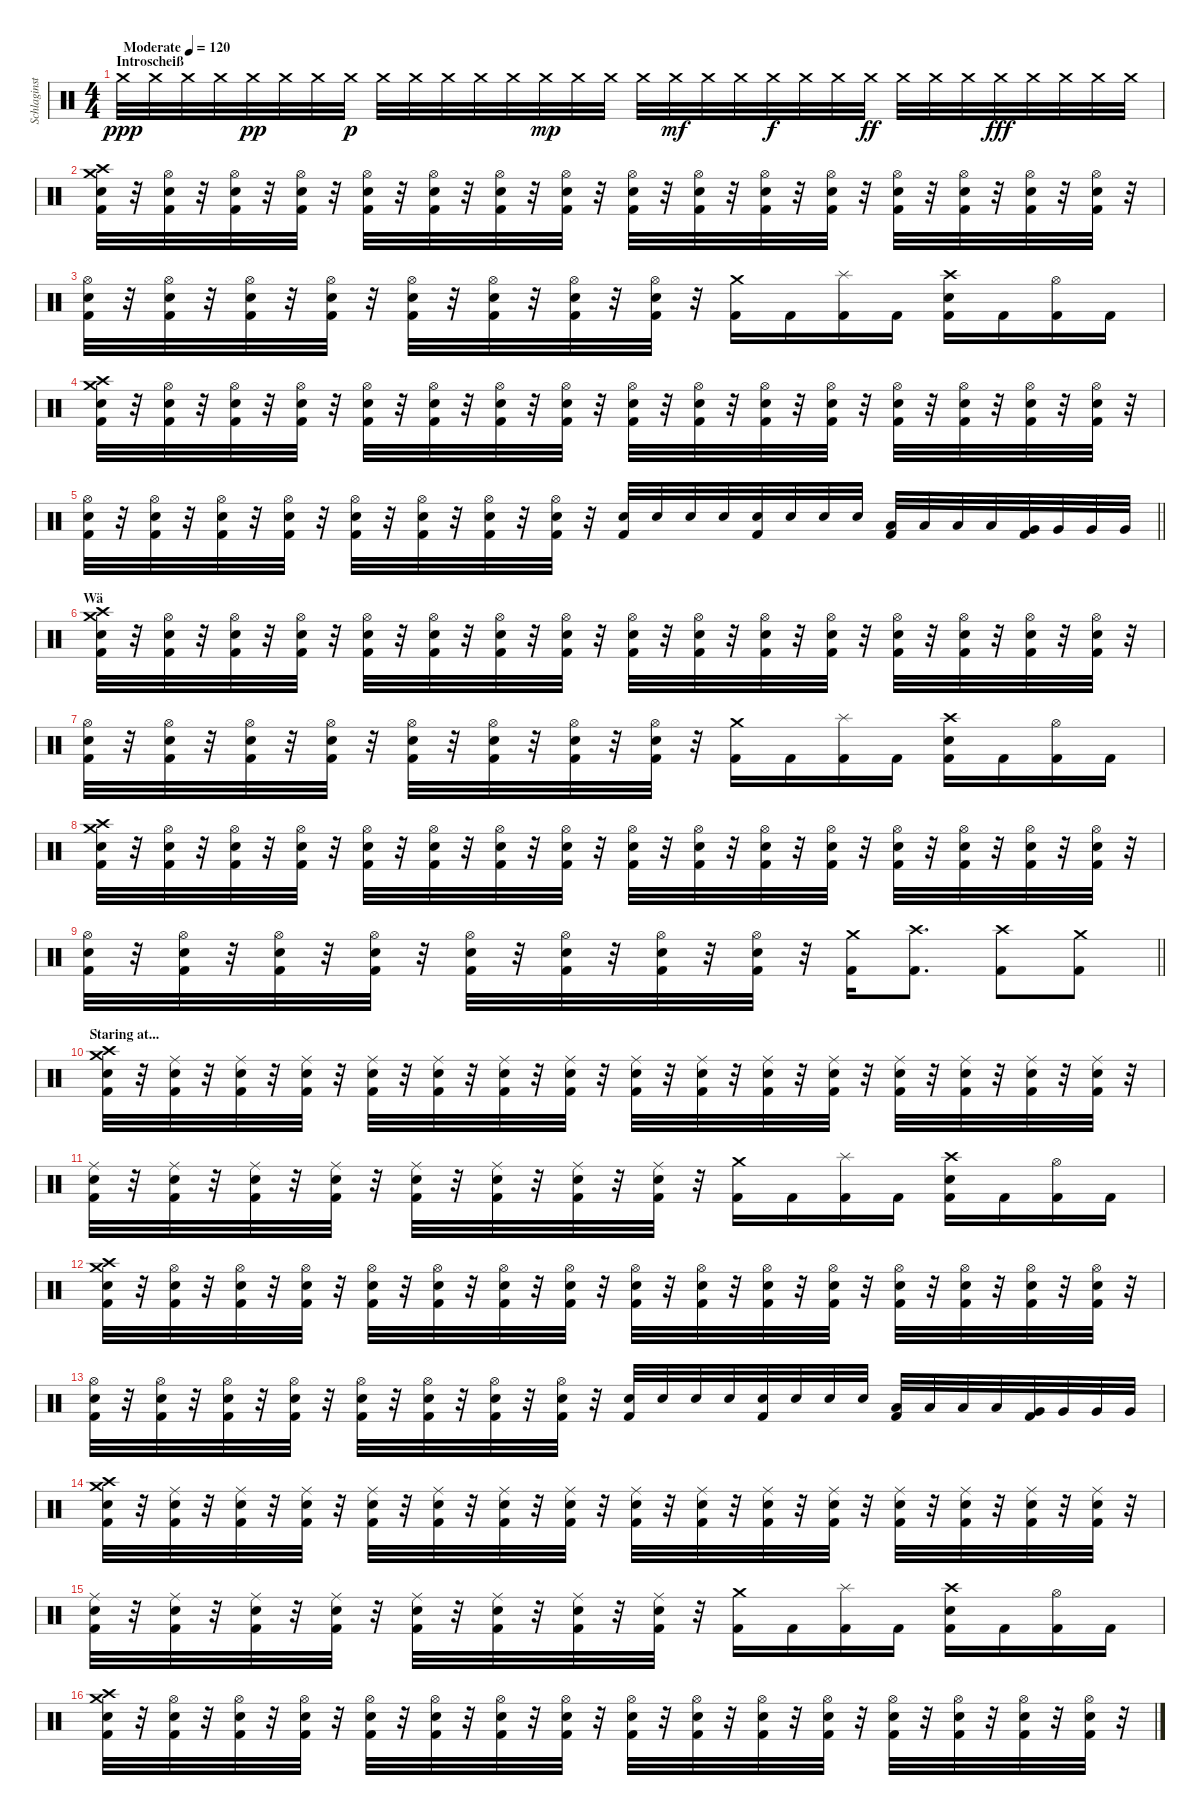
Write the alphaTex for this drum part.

\track ("Schlaginstrumente - Auswahl" "Schlaginst") {instrument percussion}
\staff {score}
\articulation defaults
\ts (4 4)
\section ("" "Introscheiß")
\tempo (120 "Moderate")
\clef neutral
\ks c "Crash medium (hit)".32{dy ppp} "Crash medium (hit)".32 "Crash medium (hit)".32 "Crash medium (hit)".32 "Crash medium (hit)".32{dy pp} "Crash medium (hit)".32 "Crash medium (hit)".32 "Crash medium (hit)".32{dy p} "Crash medium (hit)".32 "Crash medium (hit)".32 "Crash medium (hit)".32 "Crash medium (hit)".32 "Crash medium (hit)".32 "Crash medium (hit)".32{dy mp} "Crash medium (hit)".32 "Crash medium (hit)".32 "Crash medium (hit)".32 "Crash medium (hit)".32{dy mf} "Crash medium (hit)".32 "Crash medium (hit)".32 "Crash medium (hit)".32{dy f} "Crash medium (hit)".32 "Crash medium (hit)".32 "Crash medium (hit)".32{dy ff} "Crash medium (hit)".32 "Crash medium (hit)".32 "Crash medium (hit)".32 "Crash medium (hit)".32{dy fff} "Crash medium (hit)".32 "Crash medium (hit)".32 "Crash medium (hit)".32 "Crash medium (hit)".32
|
("Crash medium (hit)" "Crash high (hit)" "Electric Snare (hit)" "Kick (hit) 2").32 r.32 ("Hi-Hat (open)" "Electric Snare (hit)" "Kick (hit) 2").32 r.32 ("Hi-Hat (open)" "Electric Snare (hit)" "Kick (hit) 2").32 r.32 ("Hi-Hat (open)" "Electric Snare (hit)" "Kick (hit) 2").32 r.32 ("Hi-Hat (open)" "Electric Snare (hit)" "Kick (hit) 2").32 r.32 ("Hi-Hat (open)" "Electric Snare (hit)" "Kick (hit) 2").32 r.32 ("Hi-Hat (open)" "Electric Snare (hit)" "Kick (hit) 2").32 r.32 ("Hi-Hat (open)" "Electric Snare (hit)" "Kick (hit) 2").32 r.32 ("Hi-Hat (open)" "Electric Snare (hit)" "Kick (hit) 2").32 r.32 ("Hi-Hat (open)" "Electric Snare (hit)" "Kick (hit) 2").32 r.32 ("Hi-Hat (open)" "Electric Snare (hit)" "Kick (hit) 2").32 r.32 ("Hi-Hat (open)" "Electric Snare (hit)" "Kick (hit) 2").32 r.32 ("Hi-Hat (open)" "Electric Snare (hit)" "Kick (hit) 2").32 r.32 ("Hi-Hat (open)" "Electric Snare (hit)" "Kick (hit) 2").32 r.32 ("Hi-Hat (open)" "Electric Snare (hit)" "Kick (hit) 2").32 r.32 ("Hi-Hat (open)" "Electric Snare (hit)" "Kick (hit) 2").32 r.32 |
("Hi-Hat (open)" "Electric Snare (hit)" "Kick (hit) 2").32 r.32 ("Hi-Hat (open)" "Electric Snare (hit)" "Kick (hit) 2").32 r.32 ("Hi-Hat (open)" "Electric Snare (hit)" "Kick (hit) 2").32 r.32 ("Hi-Hat (open)" "Electric Snare (hit)" "Kick (hit) 2").32 r.32 ("Hi-Hat (open)" "Electric Snare (hit)" "Kick (hit) 2").32 r.32 ("Hi-Hat (open)" "Electric Snare (hit)" "Kick (hit) 2").32 r.32 ("Hi-Hat (open)" "Electric Snare (hit)" "Kick (hit) 2").32 r.32 ("Hi-Hat (open)" "Electric Snare (hit)" "Kick (hit) 2").32 r.32 ("Crash medium (hit)" "Kick (hit) 2").16 "Kick (hit) 2".16 ("Splash (hit)" "Kick (hit) 2").16 "Kick (hit) 2".16 ("Crash high (hit)" "Electric Snare (hit)" "Kick (hit) 2").16 "Kick (hit) 2".16 ("Hi-Hat (open)" "Kick (hit) 2").16 "Kick (hit) 2".16 |
("Crash medium (hit)" "Crash high (hit)" "Electric Snare (hit)" "Kick (hit) 2").32 r.32 ("Hi-Hat (open)" "Electric Snare (hit)" "Kick (hit) 2").32 r.32 ("Hi-Hat (open)" "Electric Snare (hit)" "Kick (hit) 2").32 r.32 ("Hi-Hat (open)" "Electric Snare (hit)" "Kick (hit) 2").32 r.32 ("Hi-Hat (open)" "Electric Snare (hit)" "Kick (hit) 2").32 r.32 ("Hi-Hat (open)" "Electric Snare (hit)" "Kick (hit) 2").32 r.32 ("Hi-Hat (open)" "Electric Snare (hit)" "Kick (hit) 2").32 r.32 ("Hi-Hat (open)" "Electric Snare (hit)" "Kick (hit) 2").32 r.32 ("Hi-Hat (open)" "Electric Snare (hit)" "Kick (hit) 2").32 r.32 ("Hi-Hat (open)" "Electric Snare (hit)" "Kick (hit) 2").32 r.32 ("Hi-Hat (open)" "Electric Snare (hit)" "Kick (hit) 2").32 r.32 ("Hi-Hat (open)" "Electric Snare (hit)" "Kick (hit) 2").32 r.32 ("Hi-Hat (open)" "Electric Snare (hit)" "Kick (hit) 2").32 r.32 ("Hi-Hat (open)" "Electric Snare (hit)" "Kick (hit) 2").32 r.32 ("Hi-Hat (open)" "Electric Snare (hit)" "Kick (hit) 2").32 r.32 ("Hi-Hat (open)" "Electric Snare (hit)" "Kick (hit) 2").32 r.32 |
\barLineRight lightlight
("Hi-Hat (open)" "Electric Snare (hit)" "Kick (hit) 2").32 r.32 ("Hi-Hat (open)" "Electric Snare (hit)" "Kick (hit) 2").32 r.32 ("Hi-Hat (open)" "Electric Snare (hit)" "Kick (hit) 2").32 r.32 ("Hi-Hat (open)" "Electric Snare (hit)" "Kick (hit) 2").32 r.32 ("Hi-Hat (open)" "Electric Snare (hit)" "Kick (hit) 2").32 r.32 ("Hi-Hat (open)" "Electric Snare (hit)" "Kick (hit) 2").32 r.32 ("Hi-Hat (open)" "Electric Snare (hit)" "Kick (hit) 2").32 r.32 ("Hi-Hat (open)" "Electric Snare (hit)" "Kick (hit) 2").32 r.32 ("Electric Snare (hit)" "Kick (hit) 2").32 "Electric Snare (hit)".32 "Electric Snare (hit)".32 "Electric Snare (hit)".32 ("Electric Snare (hit)" "Kick (hit) 2").32 "Electric Snare (hit)".32 "Electric Snare (hit)".32 "Electric Snare (hit)".32 ("Low Tom (hit)" "Kick (hit) 2").32 "Low Tom (hit)".32 "Low Tom (hit)".32 "Low Tom (hit)".32 ("Very Low Tom (hit)" "Kick (hit) 2").32 "Very Low Tom (hit)".32 "Very Low Tom (hit)".32 "Very Low Tom (hit)".32 |
\section ("" "Wä ")
("Crash medium (hit)" "Crash high (hit)" "Electric Snare (hit)" "Kick (hit) 2").32 r.32 ("Hi-Hat (open)" "Electric Snare (hit)" "Kick (hit) 2").32 r.32 ("Hi-Hat (open)" "Electric Snare (hit)" "Kick (hit) 2").32 r.32 ("Hi-Hat (open)" "Electric Snare (hit)" "Kick (hit) 2").32 r.32 ("Hi-Hat (open)" "Electric Snare (hit)" "Kick (hit) 2").32 r.32 ("Hi-Hat (open)" "Electric Snare (hit)" "Kick (hit) 2").32 r.32 ("Hi-Hat (open)" "Electric Snare (hit)" "Kick (hit) 2").32 r.32 ("Hi-Hat (open)" "Electric Snare (hit)" "Kick (hit) 2").32 r.32 ("Hi-Hat (open)" "Electric Snare (hit)" "Kick (hit) 2").32 r.32 ("Hi-Hat (open)" "Electric Snare (hit)" "Kick (hit) 2").32 r.32 ("Hi-Hat (open)" "Electric Snare (hit)" "Kick (hit) 2").32 r.32 ("Hi-Hat (open)" "Electric Snare (hit)" "Kick (hit) 2").32 r.32 ("Hi-Hat (open)" "Electric Snare (hit)" "Kick (hit) 2").32 r.32 ("Hi-Hat (open)" "Electric Snare (hit)" "Kick (hit) 2").32 r.32 ("Hi-Hat (open)" "Electric Snare (hit)" "Kick (hit) 2").32 r.32 ("Hi-Hat (open)" "Electric Snare (hit)" "Kick (hit) 2").32 r.32 |
("Hi-Hat (open)" "Electric Snare (hit)" "Kick (hit) 2").32 r.32 ("Hi-Hat (open)" "Electric Snare (hit)" "Kick (hit) 2").32 r.32 ("Hi-Hat (open)" "Electric Snare (hit)" "Kick (hit) 2").32 r.32 ("Hi-Hat (open)" "Electric Snare (hit)" "Kick (hit) 2").32 r.32 ("Hi-Hat (open)" "Electric Snare (hit)" "Kick (hit) 2").32 r.32 ("Hi-Hat (open)" "Electric Snare (hit)" "Kick (hit) 2").32 r.32 ("Hi-Hat (open)" "Electric Snare (hit)" "Kick (hit) 2").32 r.32 ("Hi-Hat (open)" "Electric Snare (hit)" "Kick (hit) 2").32 r.32 ("Crash medium (hit)" "Kick (hit) 2").16 "Kick (hit) 2".16 ("Splash (hit)" "Kick (hit) 2").16 "Kick (hit) 2".16 ("Crash high (hit)" "Electric Snare (hit)" "Kick (hit) 2").16 "Kick (hit) 2".16 ("Hi-Hat (open)" "Kick (hit) 2").16 "Kick (hit) 2".16 |
("Crash medium (hit)" "Crash high (hit)" "Electric Snare (hit)" "Kick (hit) 2").32 r.32 ("Hi-Hat (open)" "Electric Snare (hit)" "Kick (hit) 2").32 r.32 ("Hi-Hat (open)" "Electric Snare (hit)" "Kick (hit) 2").32 r.32 ("Hi-Hat (open)" "Electric Snare (hit)" "Kick (hit) 2").32 r.32 ("Hi-Hat (open)" "Electric Snare (hit)" "Kick (hit) 2").32 r.32 ("Hi-Hat (open)" "Electric Snare (hit)" "Kick (hit) 2").32 r.32 ("Hi-Hat (open)" "Electric Snare (hit)" "Kick (hit) 2").32 r.32 ("Hi-Hat (open)" "Electric Snare (hit)" "Kick (hit) 2").32 r.32 ("Hi-Hat (open)" "Electric Snare (hit)" "Kick (hit) 2").32 r.32 ("Hi-Hat (open)" "Electric Snare (hit)" "Kick (hit) 2").32 r.32 ("Hi-Hat (open)" "Electric Snare (hit)" "Kick (hit) 2").32 r.32 ("Hi-Hat (open)" "Electric Snare (hit)" "Kick (hit) 2").32 r.32 ("Hi-Hat (open)" "Electric Snare (hit)" "Kick (hit) 2").32 r.32 ("Hi-Hat (open)" "Electric Snare (hit)" "Kick (hit) 2").32 r.32 ("Hi-Hat (open)" "Electric Snare (hit)" "Kick (hit) 2").32 r.32 ("Hi-Hat (open)" "Electric Snare (hit)" "Kick (hit) 2").32 r.32 |
\barLineRight lightlight
("Hi-Hat (open)" "Electric Snare (hit)" "Kick (hit) 2").32 r.32 ("Hi-Hat (open)" "Electric Snare (hit)" "Kick (hit) 2").32 r.32 ("Hi-Hat (open)" "Electric Snare (hit)" "Kick (hit) 2").32 r.32 ("Hi-Hat (open)" "Electric Snare (hit)" "Kick (hit) 2").32 r.32 ("Hi-Hat (open)" "Electric Snare (hit)" "Kick (hit) 2").32 r.32 ("Hi-Hat (open)" "Electric Snare (hit)" "Kick (hit) 2").32 r.32 ("Hi-Hat (open)" "Electric Snare (hit)" "Kick (hit) 2").32 r.32 ("Hi-Hat (open)" "Electric Snare (hit)" "Kick (hit) 2").32 r.32 ("Crash medium (hit)" "Kick (hit) 2").16 ("Crash high (hit)" "Kick (hit) 2").8{d} ("Crash high (hit)" "Kick (hit) 2").8 ("Crash medium (hit)" "Kick (hit) 2").8 |
\section ("" "Staring at...")
("Crash medium (hit)" "Crash high (hit)" "Electric Snare (hit)" "Kick (hit) 2").32 r.32 ("Ride (middle)" "Electric Snare (hit)" "Kick (hit) 2").32 r.32 ("Ride (middle)" "Electric Snare (hit)" "Kick (hit) 2").32 r.32 ("Ride (middle)" "Electric Snare (hit)" "Kick (hit) 2").32 r.32 ("Ride (middle)" "Electric Snare (hit)" "Kick (hit) 2").32 r.32 ("Ride (middle)" "Electric Snare (hit)" "Kick (hit) 2").32 r.32 ("Ride (middle)" "Electric Snare (hit)" "Kick (hit) 2").32 r.32 ("Ride (middle)" "Electric Snare (hit)" "Kick (hit) 2").32 r.32 ("Ride (middle)" "Electric Snare (hit)" "Kick (hit) 2").32 r.32 ("Ride (middle)" "Electric Snare (hit)" "Kick (hit) 2").32 r.32 ("Ride (middle)" "Electric Snare (hit)" "Kick (hit) 2").32 r.32 ("Ride (middle)" "Electric Snare (hit)" "Kick (hit) 2").32 r.32 ("Ride (middle)" "Electric Snare (hit)" "Kick (hit) 2").32 r.32 ("Ride (middle)" "Electric Snare (hit)" "Kick (hit) 2").32 r.32 ("Ride (middle)" "Electric Snare (hit)" "Kick (hit) 2").32 r.32 ("Ride (middle)" "Electric Snare (hit)" "Kick (hit) 2").32 r.32 |
("Ride (middle)" "Electric Snare (hit)" "Kick (hit) 2").32 r.32 ("Ride (middle)" "Electric Snare (hit)" "Kick (hit) 2").32 r.32 ("Ride (middle)" "Electric Snare (hit)" "Kick (hit) 2").32 r.32 ("Ride (middle)" "Electric Snare (hit)" "Kick (hit) 2").32 r.32 ("Ride (middle)" "Electric Snare (hit)" "Kick (hit) 2").32 r.32 ("Ride (middle)" "Electric Snare (hit)" "Kick (hit) 2").32 r.32 ("Ride (middle)" "Electric Snare (hit)" "Kick (hit) 2").32 r.32 ("Ride (middle)" "Electric Snare (hit)" "Kick (hit) 2").32 r.32 ("Crash medium (hit)" "Kick (hit) 2").16 "Kick (hit) 2".16 ("Splash (hit)" "Kick (hit) 2").16 "Kick (hit) 2".16 ("Crash high (hit)" "Electric Snare (hit)" "Kick (hit) 2").16 "Kick (hit) 2".16 ("Hi-Hat (open)" "Kick (hit) 2").16 "Kick (hit) 2".16 |
("Crash medium (hit)" "Crash high (hit)" "Electric Snare (hit)" "Kick (hit) 2").32 r.32 ("Hi-Hat (open)" "Electric Snare (hit)" "Kick (hit) 2").32 r.32 ("Hi-Hat (open)" "Electric Snare (hit)" "Kick (hit) 2").32 r.32 ("Hi-Hat (open)" "Electric Snare (hit)" "Kick (hit) 2").32 r.32 ("Hi-Hat (open)" "Electric Snare (hit)" "Kick (hit) 2").32 r.32 ("Hi-Hat (open)" "Electric Snare (hit)" "Kick (hit) 2").32 r.32 ("Hi-Hat (open)" "Electric Snare (hit)" "Kick (hit) 2").32 r.32 ("Hi-Hat (open)" "Electric Snare (hit)" "Kick (hit) 2").32 r.32 ("Hi-Hat (open)" "Electric Snare (hit)" "Kick (hit) 2").32 r.32 ("Hi-Hat (open)" "Electric Snare (hit)" "Kick (hit) 2").32 r.32 ("Hi-Hat (open)" "Electric Snare (hit)" "Kick (hit) 2").32 r.32 ("Hi-Hat (open)" "Electric Snare (hit)" "Kick (hit) 2").32 r.32 ("Hi-Hat (open)" "Electric Snare (hit)" "Kick (hit) 2").32 r.32 ("Hi-Hat (open)" "Electric Snare (hit)" "Kick (hit) 2").32 r.32 ("Hi-Hat (open)" "Electric Snare (hit)" "Kick (hit) 2").32 r.32 ("Hi-Hat (open)" "Electric Snare (hit)" "Kick (hit) 2").32 r.32 |
("Hi-Hat (open)" "Electric Snare (hit)" "Kick (hit) 2").32 r.32 ("Hi-Hat (open)" "Electric Snare (hit)" "Kick (hit) 2").32 r.32 ("Hi-Hat (open)" "Electric Snare (hit)" "Kick (hit) 2").32 r.32 ("Hi-Hat (open)" "Electric Snare (hit)" "Kick (hit) 2").32 r.32 ("Hi-Hat (open)" "Electric Snare (hit)" "Kick (hit) 2").32 r.32 ("Hi-Hat (open)" "Electric Snare (hit)" "Kick (hit) 2").32 r.32 ("Hi-Hat (open)" "Electric Snare (hit)" "Kick (hit) 2").32 r.32 ("Hi-Hat (open)" "Electric Snare (hit)" "Kick (hit) 2").32 r.32 ("Electric Snare (hit)" "Kick (hit) 2").32 "Electric Snare (hit)".32 "Electric Snare (hit)".32 "Electric Snare (hit)".32 ("Electric Snare (hit)" "Kick (hit) 2").32 "Electric Snare (hit)".32 "Electric Snare (hit)".32 "Electric Snare (hit)".32 ("Low Tom (hit)" "Kick (hit) 2").32 "Low Tom (hit)".32 "Low Tom (hit)".32 "Low Tom (hit)".32 ("Very Low Tom (hit)" "Kick (hit) 2").32 "Very Low Tom (hit)".32 "Very Low Tom (hit)".32 "Very Low Tom (hit)".32 |
("Crash medium (hit)" "Crash high (hit)" "Electric Snare (hit)" "Kick (hit) 2").32 r.32 ("Ride (middle)" "Electric Snare (hit)" "Kick (hit) 2").32 r.32 ("Ride (middle)" "Electric Snare (hit)" "Kick (hit) 2").32 r.32 ("Ride (middle)" "Electric Snare (hit)" "Kick (hit) 2").32 r.32 ("Ride (middle)" "Electric Snare (hit)" "Kick (hit) 2").32 r.32 ("Ride (middle)" "Electric Snare (hit)" "Kick (hit) 2").32 r.32 ("Ride (middle)" "Electric Snare (hit)" "Kick (hit) 2").32 r.32 ("Ride (middle)" "Electric Snare (hit)" "Kick (hit) 2").32 r.32 ("Ride (middle)" "Electric Snare (hit)" "Kick (hit) 2").32 r.32 ("Ride (middle)" "Electric Snare (hit)" "Kick (hit) 2").32 r.32 ("Ride (middle)" "Electric Snare (hit)" "Kick (hit) 2").32 r.32 ("Ride (middle)" "Electric Snare (hit)" "Kick (hit) 2").32 r.32 ("Ride (middle)" "Electric Snare (hit)" "Kick (hit) 2").32 r.32 ("Ride (middle)" "Electric Snare (hit)" "Kick (hit) 2").32 r.32 ("Ride (middle)" "Electric Snare (hit)" "Kick (hit) 2").32 r.32 ("Ride (middle)" "Electric Snare (hit)" "Kick (hit) 2").32 r.32 |
("Ride (middle)" "Electric Snare (hit)" "Kick (hit) 2").32 r.32 ("Ride (middle)" "Electric Snare (hit)" "Kick (hit) 2").32 r.32 ("Ride (middle)" "Electric Snare (hit)" "Kick (hit) 2").32 r.32 ("Ride (middle)" "Electric Snare (hit)" "Kick (hit) 2").32 r.32 ("Ride (middle)" "Electric Snare (hit)" "Kick (hit) 2").32 r.32 ("Ride (middle)" "Electric Snare (hit)" "Kick (hit) 2").32 r.32 ("Ride (middle)" "Electric Snare (hit)" "Kick (hit) 2").32 r.32 ("Ride (middle)" "Electric Snare (hit)" "Kick (hit) 2").32 r.32 ("Crash medium (hit)" "Kick (hit) 2").16 "Kick (hit) 2".16 ("Splash (hit)" "Kick (hit) 2").16 "Kick (hit) 2".16 ("Crash high (hit)" "Electric Snare (hit)" "Kick (hit) 2").16 "Kick (hit) 2".16 ("Hi-Hat (open)" "Kick (hit) 2").16 "Kick (hit) 2".16 |
("Crash medium (hit)" "Crash high (hit)" "Electric Snare (hit)" "Kick (hit) 2").32 r.32 ("Hi-Hat (open)" "Electric Snare (hit)" "Kick (hit) 2").32 r.32 ("Hi-Hat (open)" "Electric Snare (hit)" "Kick (hit) 2").32 r.32 ("Hi-Hat (open)" "Electric Snare (hit)" "Kick (hit) 2").32 r.32 ("Hi-Hat (open)" "Electric Snare (hit)" "Kick (hit) 2").32 r.32 ("Hi-Hat (open)" "Electric Snare (hit)" "Kick (hit) 2").32 r.32 ("Hi-Hat (open)" "Electric Snare (hit)" "Kick (hit) 2").32 r.32 ("Hi-Hat (open)" "Electric Snare (hit)" "Kick (hit) 2").32 r.32 ("Hi-Hat (open)" "Electric Snare (hit)" "Kick (hit) 2").32 r.32 ("Hi-Hat (open)" "Electric Snare (hit)" "Kick (hit) 2").32 r.32 ("Hi-Hat (open)" "Electric Snare (hit)" "Kick (hit) 2").32 r.32 ("Hi-Hat (open)" "Electric Snare (hit)" "Kick (hit) 2").32 r.32 ("Hi-Hat (open)" "Electric Snare (hit)" "Kick (hit) 2").32 r.32 ("Hi-Hat (open)" "Electric Snare (hit)" "Kick (hit) 2").32 r.32 ("Hi-Hat (open)" "Electric Snare (hit)" "Kick (hit) 2").32 r.32 ("Hi-Hat (open)" "Electric Snare (hit)" "Kick (hit) 2").32 r.32
